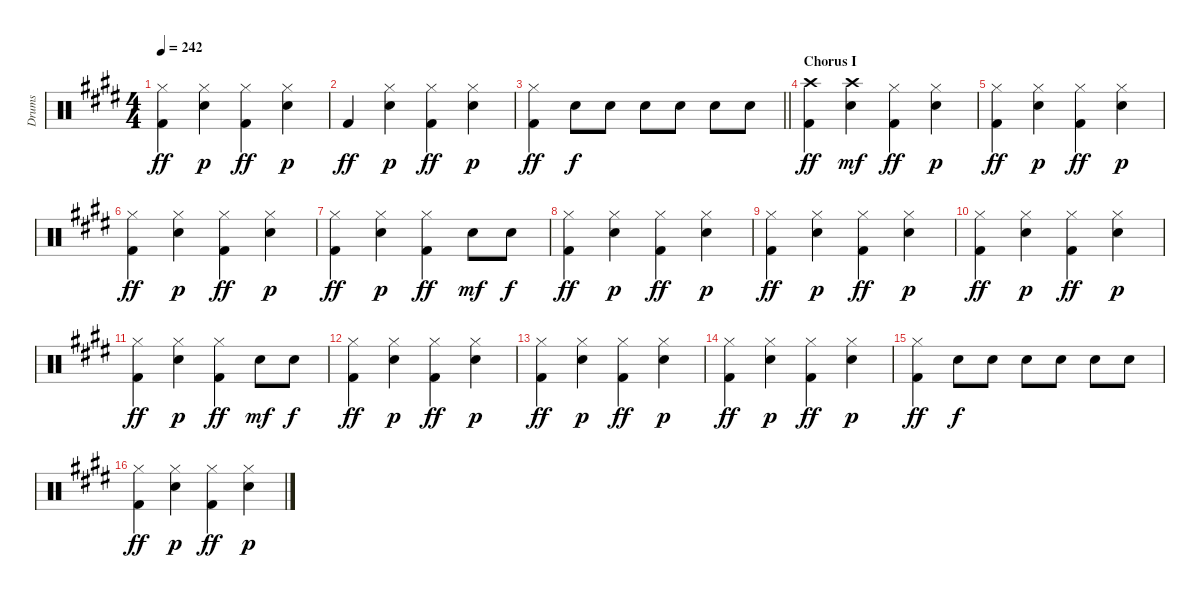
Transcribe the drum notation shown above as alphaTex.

\track ("Drums" "Drums") {instrument percussion}
\staff {score}
\articulation defaults
\ts (4 4)
\tempo 242
\clef neutral
\ks e
("Hi-Hat (closed)" "Kick (hit) 2").4{dy ff} ("Hi-Hat (closed)" "Electric Snare (hit)").4{dy p} ("Hi-Hat (closed)" "Kick (hit) 2").4{dy ff} ("Hi-Hat (closed)" "Electric Snare (hit)").4{dy p} |
"Kick (hit) 2".4{dy ff} ("Hi-Hat (closed)" "Electric Snare (hit)").4{dy p} ("Hi-Hat (closed)" "Kick (hit) 2").4{dy ff} ("Hi-Hat (closed)" "Electric Snare (hit)").4{dy p} |
\barLineRight lightlight
("Hi-Hat (closed)" "Kick (hit) 2").4{dy ff} "Electric Snare (hit)".8{dy f} "Electric Snare (hit)".8 "Electric Snare (hit)".8 "Electric Snare (hit)".8 "Electric Snare (hit)".8 "Electric Snare (hit)".8 |
\section ("" "Chorus I")
("Crash high (hit)" "Kick (hit) 2").4{dy ff} ("Crash high (hit)" "Electric Snare (hit)").4{dy mf} ("Hi-Hat (closed)" "Kick (hit) 2").4{dy ff} ("Hi-Hat (closed)" "Electric Snare (hit)").4{dy p} |
("Hi-Hat (closed)" "Kick (hit) 2").4{dy ff} ("Hi-Hat (closed)" "Electric Snare (hit)").4{dy p} ("Hi-Hat (closed)" "Kick (hit) 2").4{dy ff} ("Hi-Hat (closed)" "Electric Snare (hit)").4{dy p} |
("Hi-Hat (closed)" "Kick (hit) 2").4{dy ff} ("Hi-Hat (closed)" "Electric Snare (hit)").4{dy p} ("Hi-Hat (closed)" "Kick (hit) 2").4{dy ff} ("Hi-Hat (closed)" "Electric Snare (hit)").4{dy p} |
("Hi-Hat (closed)" "Kick (hit) 2").4{dy ff} ("Hi-Hat (closed)" "Electric Snare (hit)").4{dy p} ("Hi-Hat (closed)" "Kick (hit) 2").4{dy ff} "Electric Snare (hit)".8{dy mf} "Electric Snare (hit)".8{dy f} |
("Hi-Hat (closed)" "Kick (hit) 2").4{dy ff} ("Hi-Hat (closed)" "Electric Snare (hit)").4{dy p} ("Hi-Hat (closed)" "Kick (hit) 2").4{dy ff} ("Hi-Hat (closed)" "Electric Snare (hit)").4{dy p} |
("Hi-Hat (closed)" "Kick (hit) 2").4{dy ff} ("Hi-Hat (closed)" "Electric Snare (hit)").4{dy p} ("Hi-Hat (closed)" "Kick (hit) 2").4{dy ff} ("Hi-Hat (closed)" "Electric Snare (hit)").4{dy p} |
("Hi-Hat (closed)" "Kick (hit) 2").4{dy ff} ("Hi-Hat (closed)" "Electric Snare (hit)").4{dy p} ("Hi-Hat (closed)" "Kick (hit) 2").4{dy ff} ("Hi-Hat (closed)" "Electric Snare (hit)").4{dy p} |
("Hi-Hat (closed)" "Kick (hit) 2").4{dy ff} ("Hi-Hat (closed)" "Electric Snare (hit)").4{dy p} ("Hi-Hat (closed)" "Kick (hit) 2").4{dy ff} "Electric Snare (hit)".8{dy mf} "Electric Snare (hit)".8{dy f} |
("Hi-Hat (closed)" "Kick (hit) 2").4{dy ff} ("Hi-Hat (closed)" "Electric Snare (hit)").4{dy p} ("Hi-Hat (closed)" "Kick (hit) 2").4{dy ff} ("Hi-Hat (closed)" "Electric Snare (hit)").4{dy p} |
("Hi-Hat (closed)" "Kick (hit) 2").4{dy ff} ("Hi-Hat (closed)" "Electric Snare (hit)").4{dy p} ("Hi-Hat (closed)" "Kick (hit) 2").4{dy ff} ("Hi-Hat (closed)" "Electric Snare (hit)").4{dy p} |
("Hi-Hat (closed)" "Kick (hit) 2").4{dy ff} ("Hi-Hat (closed)" "Electric Snare (hit)").4{dy p} ("Hi-Hat (closed)" "Kick (hit) 2").4{dy ff} ("Hi-Hat (closed)" "Electric Snare (hit)").4{dy p} |
("Hi-Hat (closed)" "Kick (hit) 2").4{dy ff} "Electric Snare (hit)".8{dy f} "Electric Snare (hit)".8 "Electric Snare (hit)".8 "Electric Snare (hit)".8 "Electric Snare (hit)".8 "Electric Snare (hit)".8 |
("Hi-Hat (closed)" "Kick (hit) 2").4{dy ff} ("Hi-Hat (closed)" "Electric Snare (hit)").4{dy p} ("Hi-Hat (closed)" "Kick (hit) 2").4{dy ff} ("Hi-Hat (closed)" "Electric Snare (hit)").4{dy p}
